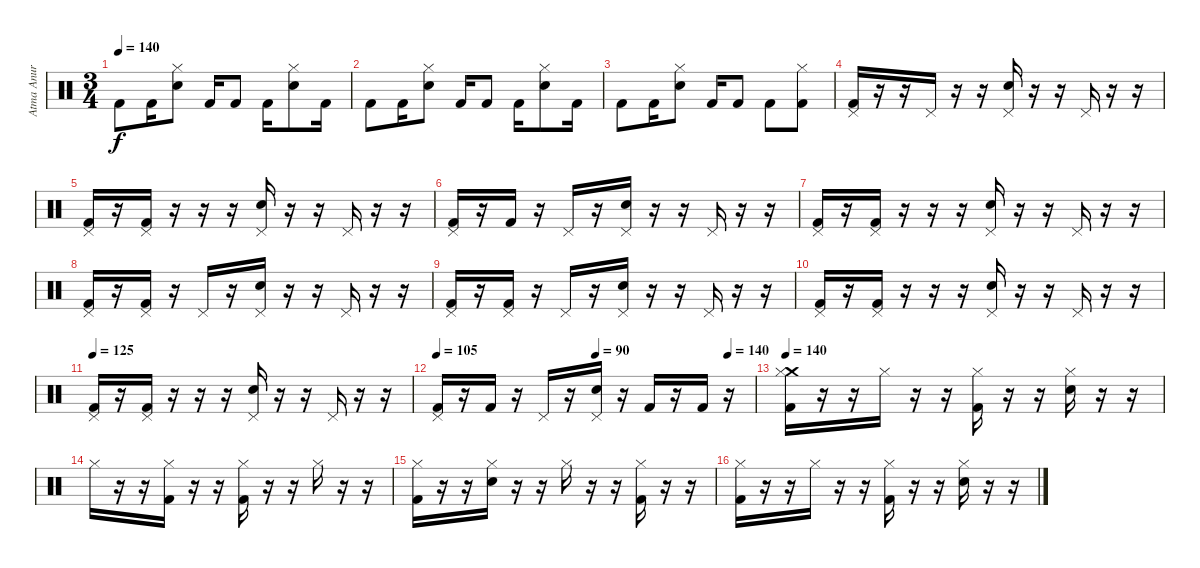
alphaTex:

\track ("Atma Anur" "Atma Anur") {instrument percussion}
\staff {score}
\articulation defaults
\ts (3 4)
\tempo 140
\clef neutral
\ks c "Kick (hit) 2".8{dy f} "Kick (hit) 2".16
("Hi-Hat (closed)" "Snare (hit) 2").8 "Kick (hit) 2".16 "Kick (hit) 2".8 "Kick (hit) 2".16 ("Hi-Hat (closed)" "Snare (hit) 2").8 "Kick (hit) 2".16 |
"Kick (hit) 2".8 "Kick (hit) 2".16 ("Hi-Hat (closed)" "Snare (hit) 2").8 "Kick (hit) 2".16 "Kick (hit) 2".8 "Kick (hit) 2".16 ("Hi-Hat (closed)" "Snare (hit) 2").8 "Kick (hit) 2".16 |
"Kick (hit) 2".8 "Kick (hit) 2".16 ("Hi-Hat (closed)" "Snare (hit) 2").8 "Kick (hit) 2".16 "Kick (hit) 2".8 "Kick (hit) 2".8 ("Hi-Hat (closed)" "Kick (hit) 2").8 |
("Pedal Hi-Hat (hit)" "Kick (hit) 2").16 r.16 r.16 "Pedal Hi-Hat (hit)".16 r.16 r.16 ("Pedal Hi-Hat (hit)" "Snare (hit) 2").16 r.16 r.16 "Pedal Hi-Hat (hit)".16 r.16 r.16 |
("Pedal Hi-Hat (hit)" "Kick (hit) 2").16 r.16 ("Pedal Hi-Hat (hit)" "Kick (hit) 2").16 r.16 r.16 r.16 ("Pedal Hi-Hat (hit)" "Snare (hit) 2").16 r.16 r.16 "Pedal Hi-Hat (hit)".16 r.16 r.16 |
("Pedal Hi-Hat (hit)" "Kick (hit) 2").16 r.16 "Kick (hit) 2".16 r.16 "Pedal Hi-Hat (hit)".16 r.16 ("Pedal Hi-Hat (hit)" "Snare (hit) 2").16 r.16 r.16 "Pedal Hi-Hat (hit)".16 r.16 r.16 |
("Pedal Hi-Hat (hit)" "Kick (hit) 2").16 r.16 ("Pedal Hi-Hat (hit)" "Kick (hit) 2").16 r.16 r.16 r.16 ("Pedal Hi-Hat (hit)" "Snare (hit) 2").16 r.16 r.16 "Pedal Hi-Hat (hit)".16 r.16 r.16 |
("Pedal Hi-Hat (hit)" "Kick (hit) 2").16 r.16 ("Pedal Hi-Hat (hit)" "Kick (hit) 2").16 r.16 "Pedal Hi-Hat (hit)".16 r.16 ("Pedal Hi-Hat (hit)" "Snare (hit) 2").16 r.16 r.16 "Pedal Hi-Hat (hit)".16 r.16 r.16 |
("Pedal Hi-Hat (hit)" "Kick (hit) 2").16 r.16 ("Pedal Hi-Hat (hit)" "Kick (hit) 2").16 r.16 "Pedal Hi-Hat (hit)".16 r.16 ("Pedal Hi-Hat (hit)" "Snare (hit) 2").16 r.16 r.16 "Pedal Hi-Hat (hit)".16 r.16 r.16 |
("Pedal Hi-Hat (hit)" "Kick (hit) 2").16 r.16 ("Pedal Hi-Hat (hit)" "Kick (hit) 2").16 r.16 r.16 r.16 ("Pedal Hi-Hat (hit)" "Snare (hit) 2").16 r.16 r.16 "Pedal Hi-Hat (hit)".16 r.16 r.16 |
\tempo 125
("Pedal Hi-Hat (hit)" "Kick (hit) 2").16 r.16 ("Pedal Hi-Hat (hit)" "Kick (hit) 2").16 r.16 r.16 r.16 ("Pedal Hi-Hat (hit)" "Snare (hit) 2").16 r.16 r.16 "Pedal Hi-Hat (hit)".16 r.16 r.16 |
\tempo 105
\tempo (90 0.5)
\tempo (140 0.9166666666666666)
("Pedal Hi-Hat (hit)" "Kick (hit) 2").16 r.16 "Kick (hit) 2".16 r.16 "Pedal Hi-Hat (hit)".16 r.16 ("Pedal Hi-Hat (hit)" "Snare (hit) 2").16 r.16 "Kick (hit) 2".16 r.16 "Kick (hit) 2".16 r.16 |
\tempo 140
("Crash medium (hit)" "Hi-Hat (closed)" "Kick (hit) 2").16 r.16 r.16 "Hi-Hat (closed)".16 r.16 r.16 ("Hi-Hat (closed)" "Kick (hit) 2").16 r.16 r.16 ("Hi-Hat (closed)" "Snare (hit) 2").16 r.16 r.16 |
"Hi-Hat (closed)".16 r.16 r.16 ("Hi-Hat (closed)" "Kick (hit) 2").16 r.16 r.16 ("Hi-Hat (closed)" "Kick (hit) 2").16 r.16 r.16 "Hi-Hat (closed)".16 r.16 r.16 |
("Hi-Hat (closed)" "Kick (hit) 2").16 r.16 r.16 ("Hi-Hat (closed)" "Snare (hit) 2").16 r.16 r.16 "Hi-Hat (closed)".16 r.16 r.16 ("Hi-Hat (closed)" "Kick (hit) 2").16 r.16 r.16 |
("Hi-Hat (closed)" "Kick (hit) 2").16 r.16 r.16 "Hi-Hat (closed)".16 r.16 r.16 ("Hi-Hat (closed)" "Kick (hit) 2").16 r.16 r.16 ("Hi-Hat (closed)" "Snare (hit) 2").16 r.16 r.16
